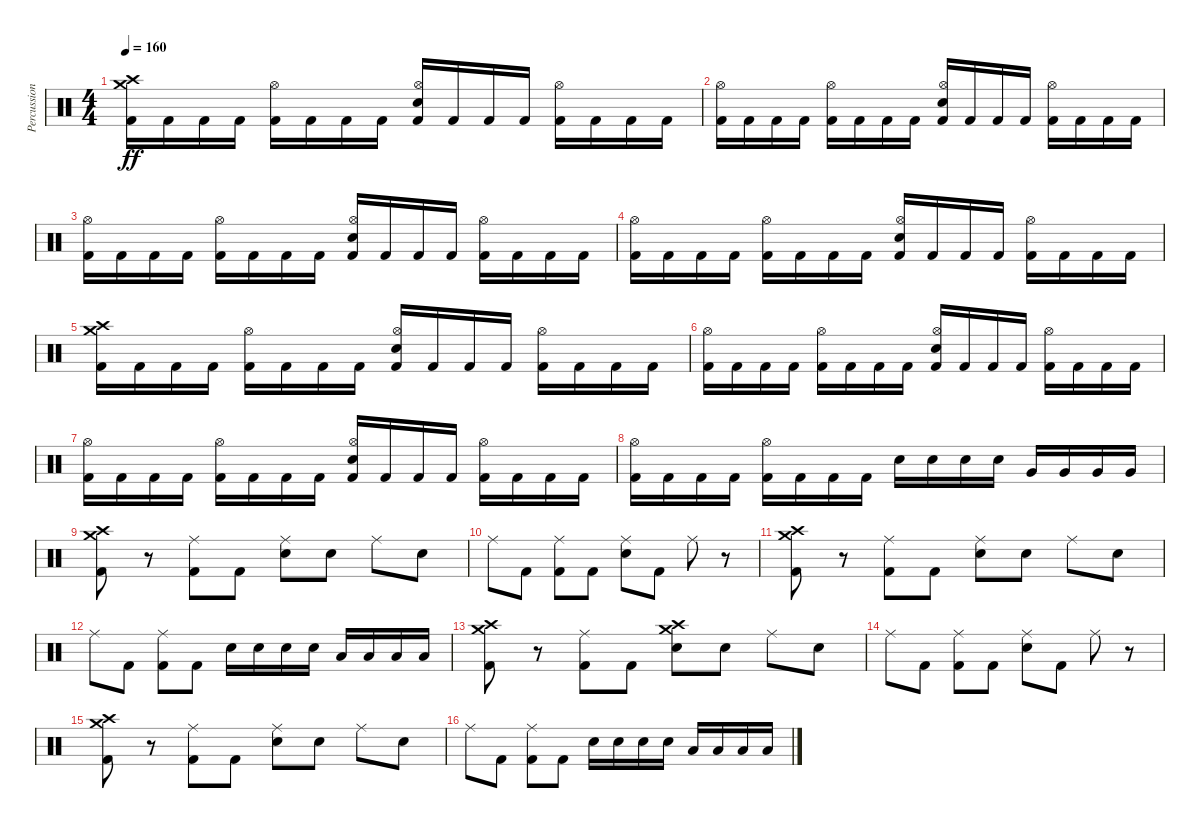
\track ("Percussion" "Percussion") {instrument percussion}
\staff {score}
\articulation defaults
\ts (4 4)
\tempo 160
\clef neutral
\ks c
("Kick (hit) 2" "Crash medium (hit)" "Crash high (hit)").16{dy ff} "Kick (hit) 2".16 "Kick (hit) 2".16 "Kick (hit) 2".16 ("Kick (hit) 2" "Hi-Hat (open)").16 "Kick (hit) 2".16 "Kick (hit) 2".16 "Kick (hit) 2".16 ("Kick (hit) 2" "Hi-Hat (open)" "Electric Snare (hit)").16 "Kick (hit) 2".16 "Kick (hit) 2".16 "Kick (hit) 2".16 ("Kick (hit) 2" "Hi-Hat (open)").16 "Kick (hit) 2".16 "Kick (hit) 2".16 "Kick (hit) 2".16 |
("Kick (hit) 2" "Hi-Hat (open)").16 "Kick (hit) 2".16 "Kick (hit) 2".16 "Kick (hit) 2".16 ("Kick (hit) 2" "Hi-Hat (open)").16 "Kick (hit) 2".16 "Kick (hit) 2".16 "Kick (hit) 2".16 ("Kick (hit) 2" "Hi-Hat (open)" "Electric Snare (hit)").16 "Kick (hit) 2".16 "Kick (hit) 2".16 "Kick (hit) 2".16 ("Kick (hit) 2" "Hi-Hat (open)").16 "Kick (hit) 2".16 "Kick (hit) 2".16 "Kick (hit) 2".16 |
("Kick (hit) 2" "Hi-Hat (open)").16 "Kick (hit) 2".16 "Kick (hit) 2".16 "Kick (hit) 2".16 ("Kick (hit) 2" "Hi-Hat (open)").16 "Kick (hit) 2".16 "Kick (hit) 2".16 "Kick (hit) 2".16 ("Kick (hit) 2" "Hi-Hat (open)" "Electric Snare (hit)").16 "Kick (hit) 2".16 "Kick (hit) 2".16 "Kick (hit) 2".16 ("Kick (hit) 2" "Hi-Hat (open)").16 "Kick (hit) 2".16 "Kick (hit) 2".16 "Kick (hit) 2".16 |
("Kick (hit) 2" "Hi-Hat (open)").16 "Kick (hit) 2".16 "Kick (hit) 2".16 "Kick (hit) 2".16 ("Kick (hit) 2" "Hi-Hat (open)").16 "Kick (hit) 2".16 "Kick (hit) 2".16 "Kick (hit) 2".16 ("Kick (hit) 2" "Hi-Hat (open)" "Electric Snare (hit)").16 "Kick (hit) 2".16 "Kick (hit) 2".16 "Kick (hit) 2".16 ("Kick (hit) 2" "Hi-Hat (open)").16 "Kick (hit) 2".16 "Kick (hit) 2".16 "Kick (hit) 2".16 |
("Kick (hit) 2" "Crash medium (hit)" "Crash high (hit)").16 "Kick (hit) 2".16 "Kick (hit) 2".16 "Kick (hit) 2".16 ("Kick (hit) 2" "Hi-Hat (open)").16 "Kick (hit) 2".16 "Kick (hit) 2".16 "Kick (hit) 2".16 ("Kick (hit) 2" "Hi-Hat (open)" "Electric Snare (hit)").16 "Kick (hit) 2".16 "Kick (hit) 2".16 "Kick (hit) 2".16 ("Kick (hit) 2" "Hi-Hat (open)").16 "Kick (hit) 2".16 "Kick (hit) 2".16 "Kick (hit) 2".16 |
("Kick (hit) 2" "Hi-Hat (open)").16 "Kick (hit) 2".16 "Kick (hit) 2".16 "Kick (hit) 2".16 ("Kick (hit) 2" "Hi-Hat (open)").16 "Kick (hit) 2".16 "Kick (hit) 2".16 "Kick (hit) 2".16 ("Kick (hit) 2" "Hi-Hat (open)" "Electric Snare (hit)").16 "Kick (hit) 2".16 "Kick (hit) 2".16 "Kick (hit) 2".16 ("Kick (hit) 2" "Hi-Hat (open)").16 "Kick (hit) 2".16 "Kick (hit) 2".16 "Kick (hit) 2".16 |
("Kick (hit) 2" "Hi-Hat (open)").16 "Kick (hit) 2".16 "Kick (hit) 2".16 "Kick (hit) 2".16 ("Kick (hit) 2" "Hi-Hat (open)").16 "Kick (hit) 2".16 "Kick (hit) 2".16 "Kick (hit) 2".16 ("Kick (hit) 2" "Hi-Hat (open)" "Electric Snare (hit)").16 "Kick (hit) 2".16 "Kick (hit) 2".16 "Kick (hit) 2".16 ("Kick (hit) 2" "Hi-Hat (open)").16 "Kick (hit) 2".16 "Kick (hit) 2".16 "Kick (hit) 2".16 |
("Kick (hit) 2" "Hi-Hat (open)").16 "Kick (hit) 2".16 "Kick (hit) 2".16 "Kick (hit) 2".16 ("Kick (hit) 2" "Hi-Hat (open)").16 "Kick (hit) 2".16 "Kick (hit) 2".16 "Kick (hit) 2".16 "Electric Snare (hit)".16 "Electric Snare (hit)".16 "Electric Snare (hit)".16 "Electric Snare (hit)".16 "Very Low Tom (hit)".16 "Very Low Tom (hit)".16 "Very Low Tom (hit)".16 "Very Low Tom (hit)".16 |
("Kick (hit) 2" "Crash medium (hit)" "Crash high (hit)").8 r.8 ("Kick (hit) 2" "Ride (middle)").8 "Kick (hit) 2".8 ("Electric Snare (hit)" "Ride (middle)").8 "Electric Snare (hit)".8 "Ride (middle)".8 "Electric Snare (hit)".8 |
"Ride (middle)".8 "Kick (hit) 2".8 ("Kick (hit) 2" "Ride (middle)").8 "Kick (hit) 2".8 ("Electric Snare (hit)" "Ride (middle)").8 "Kick (hit) 2".8 "Ride (middle)".8 r.8 |
("Kick (hit) 2" "Crash medium (hit)" "Crash high (hit)").8 r.8 ("Kick (hit) 2" "Ride (middle)").8 "Kick (hit) 2".8 ("Electric Snare (hit)" "Ride (middle)").8 "Electric Snare (hit)".8 "Ride (middle)".8 "Electric Snare (hit)".8 |
"Ride (middle)".8 "Kick (hit) 2".8 ("Kick (hit) 2" "Ride (middle)").8 "Kick (hit) 2".8 "Electric Snare (hit)".16 "Electric Snare (hit)".16 "Electric Snare (hit)".16 "Electric Snare (hit)".16 "Low Tom (hit)".16 "Low Tom (hit)".16 "Low Tom (hit)".16 "Low Tom (hit)".16 |
("Kick (hit) 2" "Crash medium (hit)" "Crash high (hit)").8 r.8 ("Kick (hit) 2" "Ride (middle)").8 "Kick (hit) 2".8 ("Crash high (hit)" "Crash medium (hit)" "Electric Snare (hit)").8 "Electric Snare (hit)".8 "Ride (middle)".8 "Electric Snare (hit)".8 |
"Ride (middle)".8 "Kick (hit) 2".8 ("Kick (hit) 2" "Ride (middle)").8 "Kick (hit) 2".8 ("Electric Snare (hit)" "Ride (middle)").8 "Kick (hit) 2".8 "Ride (middle)".8 r.8 |
("Kick (hit) 2" "Crash medium (hit)" "Crash high (hit)").8 r.8 ("Kick (hit) 2" "Ride (middle)").8 "Kick (hit) 2".8 ("Electric Snare (hit)" "Ride (middle)").8 "Electric Snare (hit)".8 "Ride (middle)".8 "Electric Snare (hit)".8 |
"Ride (middle)".8 "Kick (hit) 2".8 ("Kick (hit) 2" "Ride (middle)").8 "Kick (hit) 2".8 "Electric Snare (hit)".16 "Electric Snare (hit)".16 "Electric Snare (hit)".16 "Electric Snare (hit)".16 "Low Floor Tom (hit)".16 "Low Floor Tom (hit)".16 "Low Floor Tom (hit)".16 "Low Floor Tom (hit)".16
